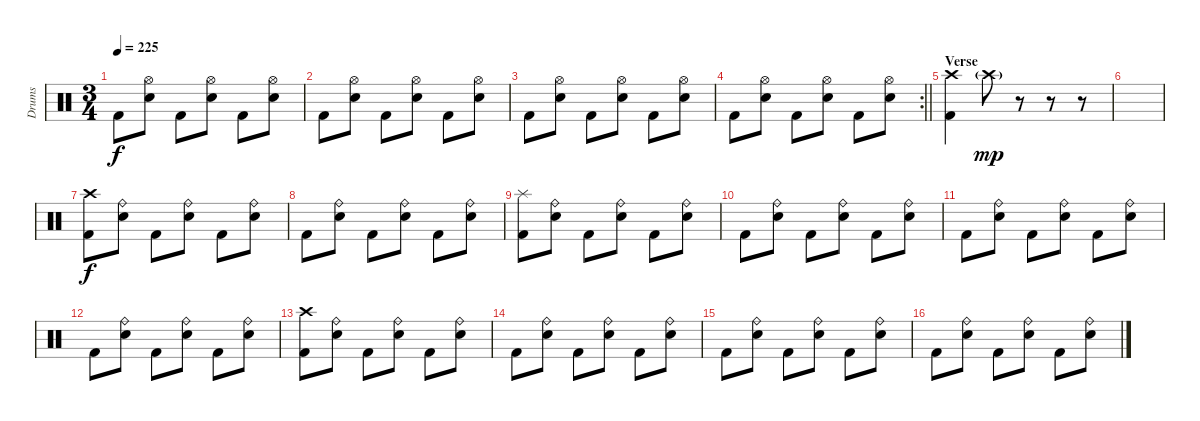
\track ("Drums" "Drums") {instrument percussion}
\staff {score}
\articulation defaults
\ts (3 4)
\tempo 225
\clef neutral
\ks c "Kick (hit) 2".8{dy f}
("Hi-Hat (open)" "Electric Snare (hit)").8 "Kick (hit) 2".8 ("Hi-Hat (open)" "Electric Snare (hit)").8 "Kick (hit) 2".8 ("Hi-Hat (open)" "Electric Snare (hit)").8 |
"Kick (hit) 2".8 ("Hi-Hat (open)" "Electric Snare (hit)").8 "Kick (hit) 2".8 ("Hi-Hat (open)" "Electric Snare (hit)").8 "Kick (hit) 2".8 ("Hi-Hat (open)" "Electric Snare (hit)").8 |
"Kick (hit) 2".8 ("Hi-Hat (open)" "Electric Snare (hit)").8 "Kick (hit) 2".8 ("Hi-Hat (open)" "Electric Snare (hit)").8 "Kick (hit) 2".8 ("Hi-Hat (open)" "Electric Snare (hit)").8 |
\rc 2
\barLineRight lightlight "Kick (hit) 2".8
("Hi-Hat (open)" "Electric Snare (hit)").8 "Kick (hit) 2".8 ("Hi-Hat (open)" "Electric Snare (hit)").8 "Kick (hit) 2".8 ("Hi-Hat (open)" "Electric Snare (hit)").8 |
\section ("" "Verse")
("Crash high (hit)" "Kick (hit) 2").4 "Crash high (hit)"{g}.8{dy mp} r.8 r.8 r.8 |
|
("Crash high (hit)" "Kick (hit) 2").8{dy f} ("Ride (bell)" "Electric Snare (hit)").8 "Kick (hit) 2".8 ("Ride (bell)" "Electric Snare (hit)").8 "Kick (hit) 2".8 ("Ride (bell)" "Electric Snare (hit)").8 |
"Kick (hit) 2".8 ("Ride (bell)" "Electric Snare (hit)").8 "Kick (hit) 2".8 ("Ride (bell)" "Electric Snare (hit)").8 "Kick (hit) 2".8 ("Ride (bell)" "Electric Snare (hit)").8 |
("Splash (hit)" "Kick (hit) 2").8 ("Ride (bell)" "Electric Snare (hit)").8 "Kick (hit) 2".8 ("Ride (bell)" "Electric Snare (hit)").8 "Kick (hit) 2".8 ("Ride (bell)" "Electric Snare (hit)").8 |
"Kick (hit) 2".8 ("Ride (bell)" "Electric Snare (hit)").8 "Kick (hit) 2".8 ("Ride (bell)" "Electric Snare (hit)").8 "Kick (hit) 2".8 ("Ride (bell)" "Electric Snare (hit)").8 |
"Kick (hit) 2".8 ("Ride (bell)" "Electric Snare (hit)").8 "Kick (hit) 2".8 ("Ride (bell)" "Electric Snare (hit)").8 "Kick (hit) 2".8 ("Ride (bell)" "Electric Snare (hit)").8 |
"Kick (hit) 2".8 ("Ride (bell)" "Electric Snare (hit)").8 "Kick (hit) 2".8 ("Ride (bell)" "Electric Snare (hit)").8 "Kick (hit) 2".8 ("Ride (bell)" "Electric Snare (hit)").8 |
("Crash high (hit)" "Kick (hit) 2").8 ("Ride (bell)" "Electric Snare (hit)").8 "Kick (hit) 2".8 ("Ride (bell)" "Electric Snare (hit)").8 "Kick (hit) 2".8 ("Ride (bell)" "Electric Snare (hit)").8 |
"Kick (hit) 2".8 ("Ride (bell)" "Electric Snare (hit)").8 "Kick (hit) 2".8 ("Ride (bell)" "Electric Snare (hit)").8 "Kick (hit) 2".8 ("Ride (bell)" "Electric Snare (hit)").8 |
"Kick (hit) 2".8 ("Ride (bell)" "Electric Snare (hit)").8 "Kick (hit) 2".8 ("Ride (bell)" "Electric Snare (hit)").8 "Kick (hit) 2".8 ("Ride (bell)" "Electric Snare (hit)").8 |
"Kick (hit) 2".8 ("Ride (bell)" "Electric Snare (hit)").8 "Kick (hit) 2".8 ("Ride (bell)" "Electric Snare (hit)").8 "Kick (hit) 2".8 ("Ride (bell)" "Electric Snare (hit)").8
